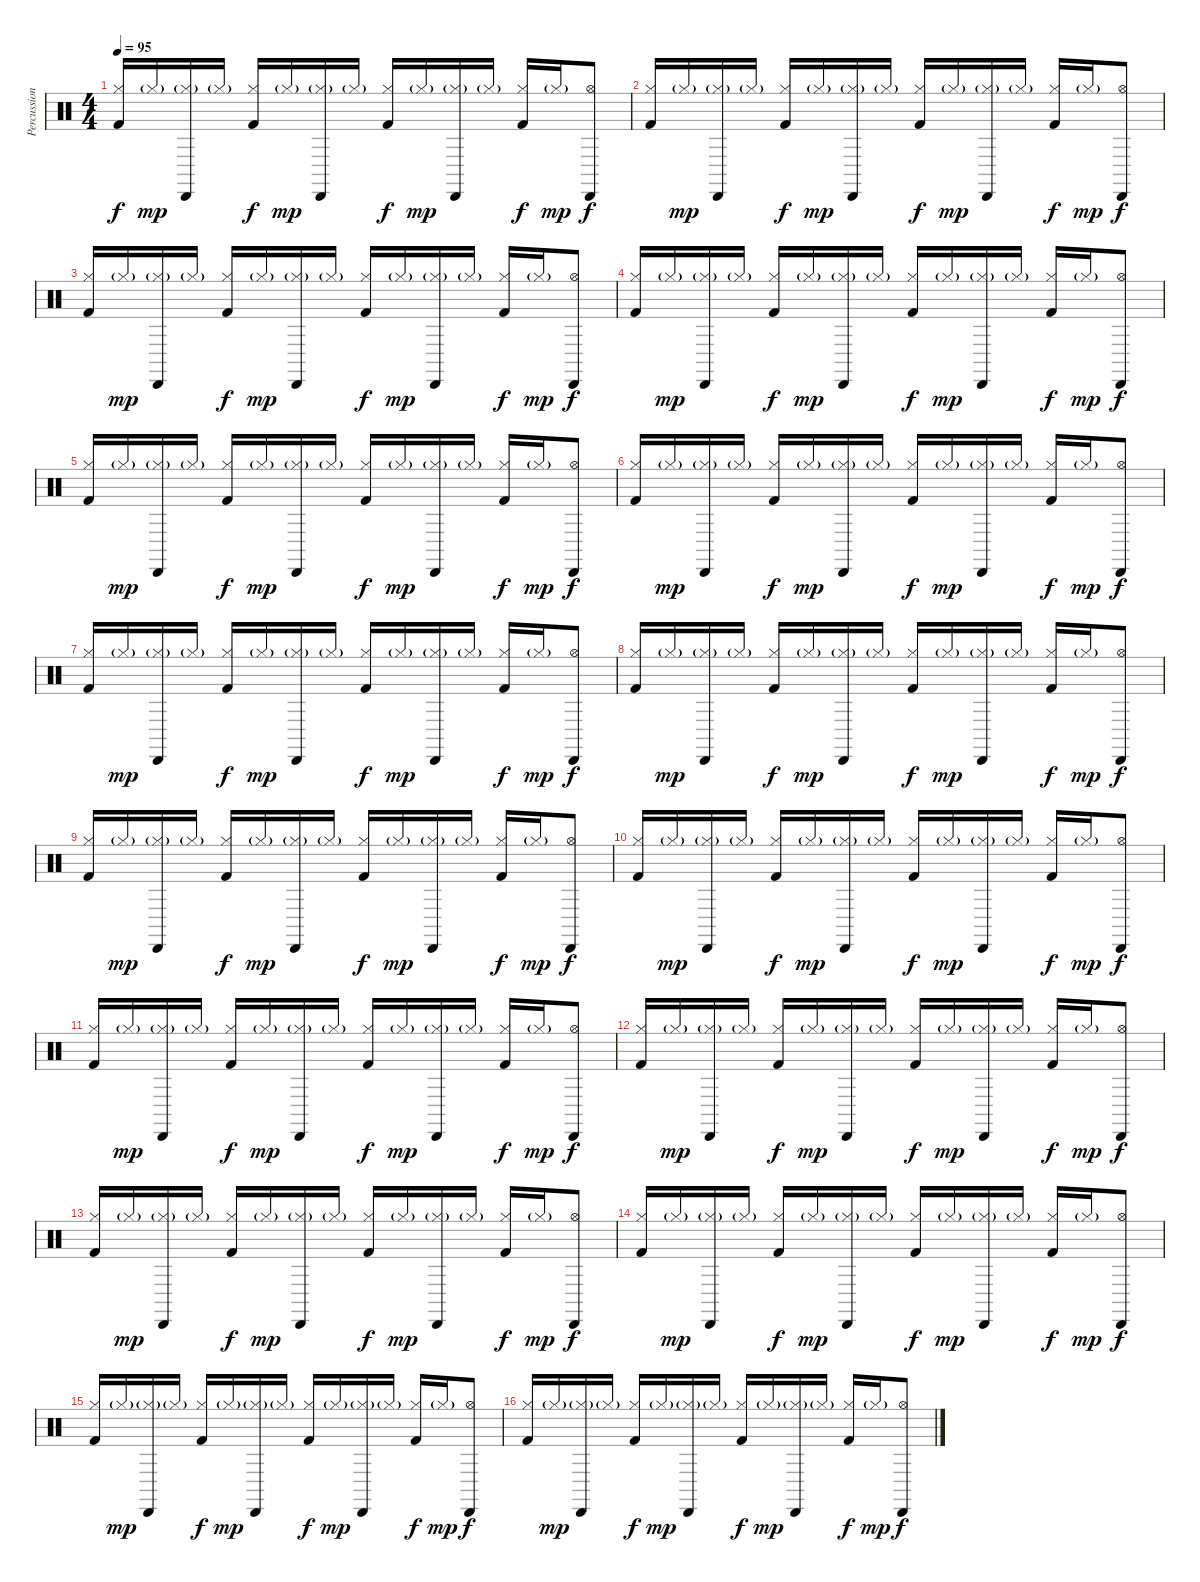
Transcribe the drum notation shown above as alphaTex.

\track ("Percussion" "Percussion") {instrument percussion}
\staff {score}
\articulation defaults
\ts (4 4)
\tempo 95
\clef neutral
\ks c
("Hi-Hat (closed)" "Kick (hit) 2").16{dy f} "Hi-Hat (closed)"{g}.16{dy mp} ("Hi-Hat (closed)"{g} "Cabasa (hit)").16 "Hi-Hat (closed)"{g}.16 ("Hi-Hat (closed)" "Kick (hit) 2").16{dy f} "Hi-Hat (closed)"{g}.16{dy mp} ("Hi-Hat (closed)"{g} "Cabasa (hit)").16 "Hi-Hat (closed)"{g}.16 ("Hi-Hat (closed)" "Kick (hit) 2").16{dy f} "Hi-Hat (closed)"{g}.16{dy mp} ("Hi-Hat (closed)"{g} "Cabasa (hit)").16 "Hi-Hat (closed)"{g}.16 ("Hi-Hat (closed)" "Kick (hit) 2").16{dy f} "Hi-Hat (closed)"{g}.16{dy mp} ("Hi-Hat (open)" "Cabasa (hit)").8{dy f} |
("Hi-Hat (closed)" "Kick (hit) 2").16 "Hi-Hat (closed)"{g}.16{dy mp} ("Hi-Hat (closed)"{g} "Cabasa (hit)").16 "Hi-Hat (closed)"{g}.16 ("Hi-Hat (closed)" "Kick (hit) 2").16{dy f} "Hi-Hat (closed)"{g}.16{dy mp} ("Hi-Hat (closed)"{g} "Cabasa (hit)").16 "Hi-Hat (closed)"{g}.16 ("Hi-Hat (closed)" "Kick (hit) 2").16{dy f} "Hi-Hat (closed)"{g}.16{dy mp} ("Hi-Hat (closed)"{g} "Cabasa (hit)").16 "Hi-Hat (closed)"{g}.16 ("Hi-Hat (closed)" "Kick (hit) 2").16{dy f} "Hi-Hat (closed)"{g}.16{dy mp} ("Hi-Hat (open)" "Cabasa (hit)").8{dy f} |
("Hi-Hat (closed)" "Kick (hit) 2").16 "Hi-Hat (closed)"{g}.16{dy mp} ("Hi-Hat (closed)"{g} "Cabasa (hit)").16 "Hi-Hat (closed)"{g}.16 ("Hi-Hat (closed)" "Kick (hit) 2").16{dy f} "Hi-Hat (closed)"{g}.16{dy mp} ("Hi-Hat (closed)"{g} "Cabasa (hit)").16 "Hi-Hat (closed)"{g}.16 ("Hi-Hat (closed)" "Kick (hit) 2").16{dy f} "Hi-Hat (closed)"{g}.16{dy mp} ("Hi-Hat (closed)"{g} "Cabasa (hit)").16 "Hi-Hat (closed)"{g}.16 ("Hi-Hat (closed)" "Kick (hit) 2").16{dy f} "Hi-Hat (closed)"{g}.16{dy mp} ("Hi-Hat (open)" "Cabasa (hit)").8{dy f} |
("Hi-Hat (closed)" "Kick (hit) 2").16 "Hi-Hat (closed)"{g}.16{dy mp} ("Hi-Hat (closed)"{g} "Cabasa (hit)").16 "Hi-Hat (closed)"{g}.16 ("Hi-Hat (closed)" "Kick (hit) 2").16{dy f} "Hi-Hat (closed)"{g}.16{dy mp} ("Hi-Hat (closed)"{g} "Cabasa (hit)").16 "Hi-Hat (closed)"{g}.16 ("Hi-Hat (closed)" "Kick (hit) 2").16{dy f} "Hi-Hat (closed)"{g}.16{dy mp} ("Hi-Hat (closed)"{g} "Cabasa (hit)").16 "Hi-Hat (closed)"{g}.16 ("Hi-Hat (closed)" "Kick (hit) 2").16{dy f} "Hi-Hat (closed)"{g}.16{dy mp} ("Hi-Hat (open)" "Cabasa (hit)").8{dy f} |
("Hi-Hat (closed)" "Kick (hit) 2").16 "Hi-Hat (closed)"{g}.16{dy mp} ("Hi-Hat (closed)"{g} "Cabasa (hit)").16 "Hi-Hat (closed)"{g}.16 ("Hi-Hat (closed)" "Kick (hit) 2").16{dy f} "Hi-Hat (closed)"{g}.16{dy mp} ("Hi-Hat (closed)"{g} "Cabasa (hit)").16 "Hi-Hat (closed)"{g}.16 ("Hi-Hat (closed)" "Kick (hit) 2").16{dy f} "Hi-Hat (closed)"{g}.16{dy mp} ("Hi-Hat (closed)"{g} "Cabasa (hit)").16 "Hi-Hat (closed)"{g}.16 ("Hi-Hat (closed)" "Kick (hit) 2").16{dy f} "Hi-Hat (closed)"{g}.16{dy mp} ("Hi-Hat (open)" "Cabasa (hit)").8{dy f} |
("Hi-Hat (closed)" "Kick (hit) 2").16 "Hi-Hat (closed)"{g}.16{dy mp} ("Hi-Hat (closed)"{g} "Cabasa (hit)").16 "Hi-Hat (closed)"{g}.16 ("Hi-Hat (closed)" "Kick (hit) 2").16{dy f} "Hi-Hat (closed)"{g}.16{dy mp} ("Hi-Hat (closed)"{g} "Cabasa (hit)").16 "Hi-Hat (closed)"{g}.16 ("Hi-Hat (closed)" "Kick (hit) 2").16{dy f} "Hi-Hat (closed)"{g}.16{dy mp} ("Hi-Hat (closed)"{g} "Cabasa (hit)").16 "Hi-Hat (closed)"{g}.16 ("Hi-Hat (closed)" "Kick (hit) 2").16{dy f} "Hi-Hat (closed)"{g}.16{dy mp} ("Hi-Hat (open)" "Cabasa (hit)").8{dy f} |
("Hi-Hat (closed)" "Kick (hit) 2").16 "Hi-Hat (closed)"{g}.16{dy mp} ("Hi-Hat (closed)"{g} "Cabasa (hit)").16 "Hi-Hat (closed)"{g}.16 ("Hi-Hat (closed)" "Kick (hit) 2").16{dy f} "Hi-Hat (closed)"{g}.16{dy mp} ("Hi-Hat (closed)"{g} "Cabasa (hit)").16 "Hi-Hat (closed)"{g}.16 ("Hi-Hat (closed)" "Kick (hit) 2").16{dy f} "Hi-Hat (closed)"{g}.16{dy mp} ("Hi-Hat (closed)"{g} "Cabasa (hit)").16 "Hi-Hat (closed)"{g}.16 ("Hi-Hat (closed)" "Kick (hit) 2").16{dy f} "Hi-Hat (closed)"{g}.16{dy mp} ("Hi-Hat (open)" "Cabasa (hit)").8{dy f} |
("Hi-Hat (closed)" "Kick (hit) 2").16 "Hi-Hat (closed)"{g}.16{dy mp} ("Hi-Hat (closed)"{g} "Cabasa (hit)").16 "Hi-Hat (closed)"{g}.16 ("Hi-Hat (closed)" "Kick (hit) 2").16{dy f} "Hi-Hat (closed)"{g}.16{dy mp} ("Hi-Hat (closed)"{g} "Cabasa (hit)").16 "Hi-Hat (closed)"{g}.16 ("Hi-Hat (closed)" "Kick (hit) 2").16{dy f} "Hi-Hat (closed)"{g}.16{dy mp} ("Hi-Hat (closed)"{g} "Cabasa (hit)").16 "Hi-Hat (closed)"{g}.16 ("Hi-Hat (closed)" "Kick (hit) 2").16{dy f} "Hi-Hat (closed)"{g}.16{dy mp} ("Hi-Hat (open)" "Cabasa (hit)").8{dy f} |
("Hi-Hat (closed)" "Kick (hit) 2").16 "Hi-Hat (closed)"{g}.16{dy mp} ("Hi-Hat (closed)"{g} "Cabasa (hit)").16 "Hi-Hat (closed)"{g}.16 ("Hi-Hat (closed)" "Kick (hit) 2").16{dy f} "Hi-Hat (closed)"{g}.16{dy mp} ("Hi-Hat (closed)"{g} "Cabasa (hit)").16 "Hi-Hat (closed)"{g}.16 ("Hi-Hat (closed)" "Kick (hit) 2").16{dy f} "Hi-Hat (closed)"{g}.16{dy mp} ("Hi-Hat (closed)"{g} "Cabasa (hit)").16 "Hi-Hat (closed)"{g}.16 ("Hi-Hat (closed)" "Kick (hit) 2").16{dy f} "Hi-Hat (closed)"{g}.16{dy mp} ("Hi-Hat (open)" "Cabasa (hit)").8{dy f} |
("Hi-Hat (closed)" "Kick (hit) 2").16 "Hi-Hat (closed)"{g}.16{dy mp} ("Hi-Hat (closed)"{g} "Cabasa (hit)").16 "Hi-Hat (closed)"{g}.16 ("Hi-Hat (closed)" "Kick (hit) 2").16{dy f} "Hi-Hat (closed)"{g}.16{dy mp} ("Hi-Hat (closed)"{g} "Cabasa (hit)").16 "Hi-Hat (closed)"{g}.16 ("Hi-Hat (closed)" "Kick (hit) 2").16{dy f} "Hi-Hat (closed)"{g}.16{dy mp} ("Hi-Hat (closed)"{g} "Cabasa (hit)").16 "Hi-Hat (closed)"{g}.16 ("Hi-Hat (closed)" "Kick (hit) 2").16{dy f} "Hi-Hat (closed)"{g}.16{dy mp} ("Hi-Hat (open)" "Cabasa (hit)").8{dy f} |
("Hi-Hat (closed)" "Kick (hit) 2").16 "Hi-Hat (closed)"{g}.16{dy mp} ("Hi-Hat (closed)"{g} "Cabasa (hit)").16 "Hi-Hat (closed)"{g}.16 ("Hi-Hat (closed)" "Kick (hit) 2").16{dy f} "Hi-Hat (closed)"{g}.16{dy mp} ("Hi-Hat (closed)"{g} "Cabasa (hit)").16 "Hi-Hat (closed)"{g}.16 ("Hi-Hat (closed)" "Kick (hit) 2").16{dy f} "Hi-Hat (closed)"{g}.16{dy mp} ("Hi-Hat (closed)"{g} "Cabasa (hit)").16 "Hi-Hat (closed)"{g}.16 ("Hi-Hat (closed)" "Kick (hit) 2").16{dy f} "Hi-Hat (closed)"{g}.16{dy mp} ("Hi-Hat (open)" "Cabasa (hit)").8{dy f} |
("Hi-Hat (closed)" "Kick (hit) 2").16 "Hi-Hat (closed)"{g}.16{dy mp} ("Hi-Hat (closed)"{g} "Cabasa (hit)").16 "Hi-Hat (closed)"{g}.16 ("Hi-Hat (closed)" "Kick (hit) 2").16{dy f} "Hi-Hat (closed)"{g}.16{dy mp} ("Hi-Hat (closed)"{g} "Cabasa (hit)").16 "Hi-Hat (closed)"{g}.16 ("Hi-Hat (closed)" "Kick (hit) 2").16{dy f} "Hi-Hat (closed)"{g}.16{dy mp} ("Hi-Hat (closed)"{g} "Cabasa (hit)").16 "Hi-Hat (closed)"{g}.16 ("Hi-Hat (closed)" "Kick (hit) 2").16{dy f} "Hi-Hat (closed)"{g}.16{dy mp} ("Hi-Hat (open)" "Cabasa (hit)").8{dy f} |
("Hi-Hat (closed)" "Kick (hit) 2").16 "Hi-Hat (closed)"{g}.16{dy mp} ("Hi-Hat (closed)"{g} "Cabasa (hit)").16 "Hi-Hat (closed)"{g}.16 ("Hi-Hat (closed)" "Kick (hit) 2").16{dy f} "Hi-Hat (closed)"{g}.16{dy mp} ("Hi-Hat (closed)"{g} "Cabasa (hit)").16 "Hi-Hat (closed)"{g}.16 ("Hi-Hat (closed)" "Kick (hit) 2").16{dy f} "Hi-Hat (closed)"{g}.16{dy mp} ("Hi-Hat (closed)"{g} "Cabasa (hit)").16 "Hi-Hat (closed)"{g}.16 ("Hi-Hat (closed)" "Kick (hit) 2").16{dy f} "Hi-Hat (closed)"{g}.16{dy mp} ("Hi-Hat (open)" "Cabasa (hit)").8{dy f} |
("Hi-Hat (closed)" "Kick (hit) 2").16 "Hi-Hat (closed)"{g}.16{dy mp} ("Hi-Hat (closed)"{g} "Cabasa (hit)").16 "Hi-Hat (closed)"{g}.16 ("Hi-Hat (closed)" "Kick (hit) 2").16{dy f} "Hi-Hat (closed)"{g}.16{dy mp} ("Hi-Hat (closed)"{g} "Cabasa (hit)").16 "Hi-Hat (closed)"{g}.16 ("Hi-Hat (closed)" "Kick (hit) 2").16{dy f} "Hi-Hat (closed)"{g}.16{dy mp} ("Hi-Hat (closed)"{g} "Cabasa (hit)").16 "Hi-Hat (closed)"{g}.16 ("Hi-Hat (closed)" "Kick (hit) 2").16{dy f} "Hi-Hat (closed)"{g}.16{dy mp} ("Hi-Hat (open)" "Cabasa (hit)").8{dy f} |
("Hi-Hat (closed)" "Kick (hit) 2").16 "Hi-Hat (closed)"{g}.16{dy mp} ("Hi-Hat (closed)"{g} "Cabasa (hit)").16 "Hi-Hat (closed)"{g}.16 ("Hi-Hat (closed)" "Kick (hit) 2").16{dy f} "Hi-Hat (closed)"{g}.16{dy mp} ("Hi-Hat (closed)"{g} "Cabasa (hit)").16 "Hi-Hat (closed)"{g}.16 ("Hi-Hat (closed)" "Kick (hit) 2").16{dy f} "Hi-Hat (closed)"{g}.16{dy mp} ("Hi-Hat (closed)"{g} "Cabasa (hit)").16 "Hi-Hat (closed)"{g}.16 ("Hi-Hat (closed)" "Kick (hit) 2").16{dy f} "Hi-Hat (closed)"{g}.16{dy mp} ("Hi-Hat (open)" "Cabasa (hit)").8{dy f} |
("Hi-Hat (closed)" "Kick (hit) 2").16 "Hi-Hat (closed)"{g}.16{dy mp} ("Hi-Hat (closed)"{g} "Cabasa (hit)").16 "Hi-Hat (closed)"{g}.16 ("Hi-Hat (closed)" "Kick (hit) 2").16{dy f} "Hi-Hat (closed)"{g}.16{dy mp} ("Hi-Hat (closed)"{g} "Cabasa (hit)").16 "Hi-Hat (closed)"{g}.16 ("Hi-Hat (closed)" "Kick (hit) 2").16{dy f} "Hi-Hat (closed)"{g}.16{dy mp} ("Hi-Hat (closed)"{g} "Cabasa (hit)").16 "Hi-Hat (closed)"{g}.16 ("Hi-Hat (closed)" "Kick (hit) 2").16{dy f} "Hi-Hat (closed)"{g}.16{dy mp} ("Hi-Hat (open)" "Cabasa (hit)").8{dy f}
